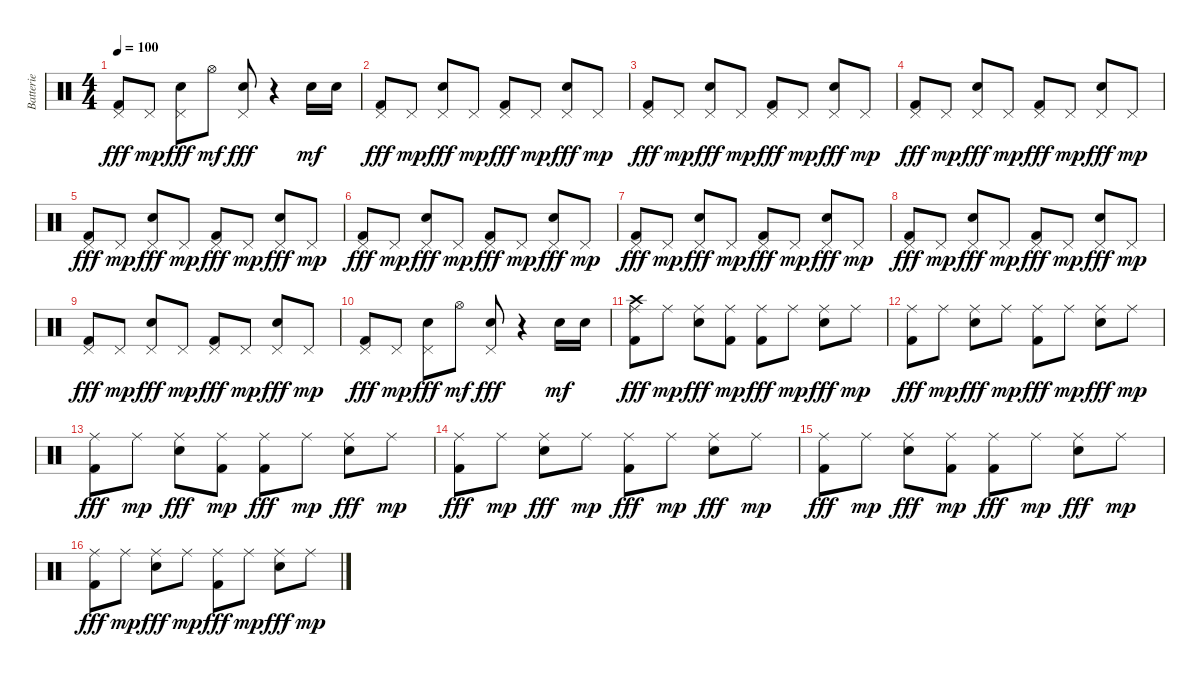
\track ("Batterie" "Batterie") {instrument percussion}
\staff {score}
\articulation defaults
\ts (4 4)
\tempo 100
\clef neutral
\ks c
("Pedal Hi-Hat (hit)" "Kick (hit) 2").8{dy fff} "Pedal Hi-Hat (hit)".8{dy mp} ("Pedal Hi-Hat (hit)" "Electric Snare (hit)").8{dy fff} "Hi-Hat (open)".8{dy mf} ("Pedal Hi-Hat (hit)" "Electric Snare (hit)").8{dy fff} r.4 "Electric Snare (hit)".16{dy mf} "Electric Snare (hit)".16 |
("Pedal Hi-Hat (hit)" "Kick (hit) 2").8{dy fff} "Pedal Hi-Hat (hit)".8{dy mp} ("Pedal Hi-Hat (hit)" "Electric Snare (hit)").8{dy fff} "Pedal Hi-Hat (hit)".8{dy mp} ("Pedal Hi-Hat (hit)" "Kick (hit) 2").8{dy fff} "Pedal Hi-Hat (hit)".8{dy mp} ("Pedal Hi-Hat (hit)" "Electric Snare (hit)").8{dy fff} "Pedal Hi-Hat (hit)".8{dy mp} |
("Pedal Hi-Hat (hit)" "Kick (hit) 2").8{dy fff} "Pedal Hi-Hat (hit)".8{dy mp} ("Pedal Hi-Hat (hit)" "Electric Snare (hit)").8{dy fff} "Pedal Hi-Hat (hit)".8{dy mp} ("Pedal Hi-Hat (hit)" "Kick (hit) 2").8{dy fff} "Pedal Hi-Hat (hit)".8{dy mp} ("Pedal Hi-Hat (hit)" "Electric Snare (hit)").8{dy fff} "Pedal Hi-Hat (hit)".8{dy mp} |
("Pedal Hi-Hat (hit)" "Kick (hit) 2").8{dy fff} "Pedal Hi-Hat (hit)".8{dy mp} ("Pedal Hi-Hat (hit)" "Electric Snare (hit)").8{dy fff} "Pedal Hi-Hat (hit)".8{dy mp} ("Pedal Hi-Hat (hit)" "Kick (hit) 2").8{dy fff} "Pedal Hi-Hat (hit)".8{dy mp} ("Pedal Hi-Hat (hit)" "Electric Snare (hit)").8{dy fff} "Pedal Hi-Hat (hit)".8{dy mp} |
("Pedal Hi-Hat (hit)" "Kick (hit) 2").8{dy fff} "Pedal Hi-Hat (hit)".8{dy mp} ("Pedal Hi-Hat (hit)" "Electric Snare (hit)").8{dy fff} "Pedal Hi-Hat (hit)".8{dy mp} ("Pedal Hi-Hat (hit)" "Kick (hit) 2").8{dy fff} "Pedal Hi-Hat (hit)".8{dy mp} ("Pedal Hi-Hat (hit)" "Electric Snare (hit)").8{dy fff} "Pedal Hi-Hat (hit)".8{dy mp} |
("Pedal Hi-Hat (hit)" "Kick (hit) 2").8{dy fff} "Pedal Hi-Hat (hit)".8{dy mp} ("Pedal Hi-Hat (hit)" "Electric Snare (hit)").8{dy fff} "Pedal Hi-Hat (hit)".8{dy mp} ("Pedal Hi-Hat (hit)" "Kick (hit) 2").8{dy fff} "Pedal Hi-Hat (hit)".8{dy mp} ("Pedal Hi-Hat (hit)" "Electric Snare (hit)").8{dy fff} "Pedal Hi-Hat (hit)".8{dy mp} |
("Pedal Hi-Hat (hit)" "Kick (hit) 2").8{dy fff} "Pedal Hi-Hat (hit)".8{dy mp} ("Pedal Hi-Hat (hit)" "Electric Snare (hit)").8{dy fff} "Pedal Hi-Hat (hit)".8{dy mp} ("Pedal Hi-Hat (hit)" "Kick (hit) 2").8{dy fff} "Pedal Hi-Hat (hit)".8{dy mp} ("Pedal Hi-Hat (hit)" "Electric Snare (hit)").8{dy fff} "Pedal Hi-Hat (hit)".8{dy mp} |
("Pedal Hi-Hat (hit)" "Kick (hit) 2").8{dy fff} "Pedal Hi-Hat (hit)".8{dy mp} ("Pedal Hi-Hat (hit)" "Electric Snare (hit)").8{dy fff} "Pedal Hi-Hat (hit)".8{dy mp} ("Pedal Hi-Hat (hit)" "Kick (hit) 2").8{dy fff} "Pedal Hi-Hat (hit)".8{dy mp} ("Pedal Hi-Hat (hit)" "Electric Snare (hit)").8{dy fff} "Pedal Hi-Hat (hit)".8{dy mp} |
("Pedal Hi-Hat (hit)" "Kick (hit) 2").8{dy fff} "Pedal Hi-Hat (hit)".8{dy mp} ("Pedal Hi-Hat (hit)" "Electric Snare (hit)").8{dy fff} "Pedal Hi-Hat (hit)".8{dy mp} ("Pedal Hi-Hat (hit)" "Kick (hit) 2").8{dy fff} "Pedal Hi-Hat (hit)".8{dy mp} ("Pedal Hi-Hat (hit)" "Electric Snare (hit)").8{dy fff} "Pedal Hi-Hat (hit)".8{dy mp} |
("Pedal Hi-Hat (hit)" "Kick (hit) 2").8{dy fff} "Pedal Hi-Hat (hit)".8{dy mp} ("Pedal Hi-Hat (hit)" "Electric Snare (hit)").8{dy fff} "Hi-Hat (open)".8{dy mf} ("Pedal Hi-Hat (hit)" "Electric Snare (hit)").8{dy fff} r.4 "Electric Snare (hit)".16{dy mf} "Electric Snare (hit)".16 |
("Ride (middle)" "Kick (hit) 2" "Crash high (hit)").8{dy fff} "Ride (middle)".8{dy mp} ("Ride (middle)" "Electric Snare (hit)").8{dy fff} ("Ride (middle)" "Kick (hit) 2").8{dy mp} ("Ride (middle)" "Kick (hit) 2").8{dy fff} "Ride (middle)".8{dy mp} ("Ride (middle)" "Electric Snare (hit)").8{dy fff} "Ride (middle)".8{dy mp} |
("Ride (middle)" "Kick (hit) 2").8{dy fff} "Ride (middle)".8{dy mp} ("Ride (middle)" "Electric Snare (hit)").8{dy fff} "Ride (middle)".8{dy mp} ("Ride (middle)" "Kick (hit) 2").8{dy fff} "Ride (middle)".8{dy mp} ("Ride (middle)" "Electric Snare (hit)").8{dy fff} "Ride (middle)".8{dy mp} |
("Ride (middle)" "Kick (hit) 2").8{dy fff} "Ride (middle)".8{dy mp} ("Ride (middle)" "Electric Snare (hit)").8{dy fff} ("Ride (middle)" "Kick (hit) 2").8{dy mp} ("Ride (middle)" "Kick (hit) 2").8{dy fff} "Ride (middle)".8{dy mp} ("Ride (middle)" "Electric Snare (hit)").8{dy fff} "Ride (middle)".8{dy mp} |
("Ride (middle)" "Kick (hit) 2").8{dy fff} "Ride (middle)".8{dy mp} ("Ride (middle)" "Electric Snare (hit)").8{dy fff} "Ride (middle)".8{dy mp} ("Ride (middle)" "Kick (hit) 2").8{dy fff} "Ride (middle)".8{dy mp} ("Ride (middle)" "Electric Snare (hit)").8{dy fff} "Ride (middle)".8{dy mp} |
("Ride (middle)" "Kick (hit) 2").8{dy fff} "Ride (middle)".8{dy mp} ("Ride (middle)" "Electric Snare (hit)").8{dy fff} ("Ride (middle)" "Kick (hit) 2").8{dy mp} ("Ride (middle)" "Kick (hit) 2").8{dy fff} "Ride (middle)".8{dy mp} ("Ride (middle)" "Electric Snare (hit)").8{dy fff} "Ride (middle)".8{dy mp} |
("Ride (middle)" "Kick (hit) 2").8{dy fff} "Ride (middle)".8{dy mp} ("Ride (middle)" "Electric Snare (hit)").8{dy fff} "Ride (middle)".8{dy mp} ("Ride (middle)" "Kick (hit) 2").8{dy fff} "Ride (middle)".8{dy mp} ("Ride (middle)" "Electric Snare (hit)").8{dy fff} "Ride (middle)".8{dy mp}
